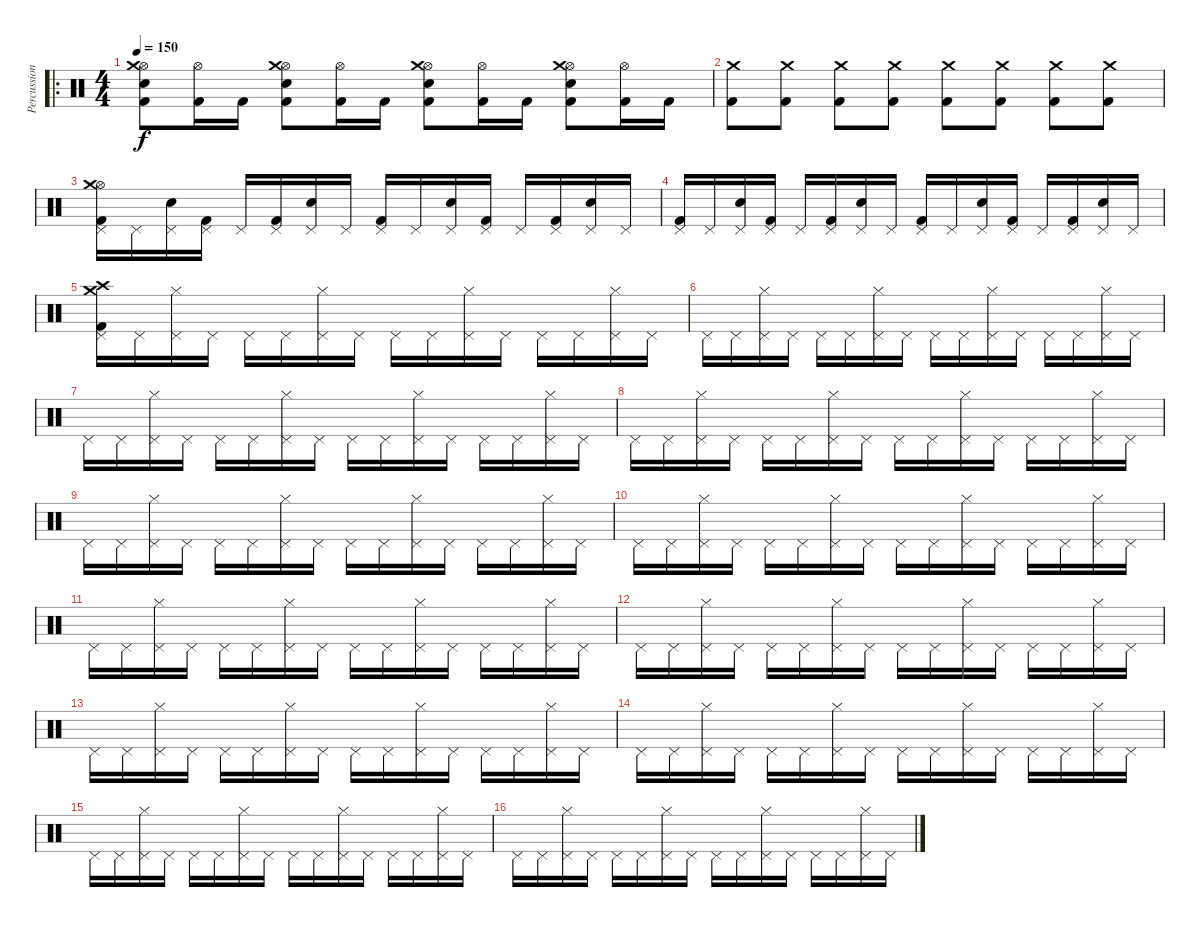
\track ("Percussion" "Percussion") {instrument percussion}
\staff {score}
\articulation defaults
\ro
\ts (4 4)
\tempo 150
\clef neutral
\ks c
("Hi-Hat (open)" "Kick (hit) 2" "Snare (hit) 2" "Crash medium (hit)").8{dy f} ("Hi-Hat (open)" "Kick (hit) 2").16 "Kick (hit) 2".16 ("Hi-Hat (open)" "Kick (hit) 2" "Snare (hit) 2" "Crash medium (hit)").8 ("Hi-Hat (open)" "Kick (hit) 2").16 "Kick (hit) 2".16 ("Hi-Hat (open)" "Kick (hit) 2" "Snare (hit) 2" "Crash medium (hit)").8 ("Hi-Hat (open)" "Kick (hit) 2").16 "Kick (hit) 2".16 ("Hi-Hat (open)" "Kick (hit) 2" "Snare (hit) 2" "Crash medium (hit)").8 ("Hi-Hat (open)" "Kick (hit) 2").16 "Kick (hit) 2".16 |
("Kick (hit) 2" "Crash medium (hit)").8 ("Kick (hit) 2" "Crash medium (hit)").8 ("Kick (hit) 2" "Crash medium (hit)").8 ("Kick (hit) 2" "Crash medium (hit)").8 ("Kick (hit) 2" "Crash medium (hit)").8 ("Kick (hit) 2" "Crash medium (hit)").8 ("Kick (hit) 2" "Crash medium (hit)").8 ("Kick (hit) 2" "Crash medium (hit)").8 |
("Pedal Hi-Hat (hit)" "Kick (hit) 2" "Hi-Hat (open)" "Crash medium (hit)").16 "Pedal Hi-Hat (hit)".16 ("Pedal Hi-Hat (hit)" "Snare (hit) 2").16 ("Pedal Hi-Hat (hit)" "Kick (hit) 2").16 "Pedal Hi-Hat (hit)".16 ("Pedal Hi-Hat (hit)" "Kick (hit) 2").16 ("Pedal Hi-Hat (hit)" "Snare (hit) 2").16 "Pedal Hi-Hat (hit)".16 ("Pedal Hi-Hat (hit)" "Kick (hit) 2").16 "Pedal Hi-Hat (hit)".16 ("Pedal Hi-Hat (hit)" "Snare (hit) 2").16 ("Pedal Hi-Hat (hit)" "Kick (hit) 2").16 "Pedal Hi-Hat (hit)".16 ("Pedal Hi-Hat (hit)" "Kick (hit) 2").16 ("Pedal Hi-Hat (hit)" "Snare (hit) 2").16 "Pedal Hi-Hat (hit)".16 |
("Pedal Hi-Hat (hit)" "Kick (hit) 2").16 "Pedal Hi-Hat (hit)".16 ("Pedal Hi-Hat (hit)" "Snare (hit) 2").16 ("Pedal Hi-Hat (hit)" "Kick (hit) 2").16 "Pedal Hi-Hat (hit)".16 ("Pedal Hi-Hat (hit)" "Kick (hit) 2").16 ("Pedal Hi-Hat (hit)" "Snare (hit) 2").16 "Pedal Hi-Hat (hit)".16 ("Pedal Hi-Hat (hit)" "Kick (hit) 2").16 "Pedal Hi-Hat (hit)".16 ("Pedal Hi-Hat (hit)" "Snare (hit) 2").16 ("Pedal Hi-Hat (hit)" "Kick (hit) 2").16 "Pedal Hi-Hat (hit)".16 ("Pedal Hi-Hat (hit)" "Kick (hit) 2").16 ("Pedal Hi-Hat (hit)" "Snare (hit) 2").16 "Pedal Hi-Hat (hit)".16 |
("Pedal Hi-Hat (hit)" "Kick (hit) 2" "Crash medium (hit)" "Crash high (hit)").16 "Pedal Hi-Hat (hit)".16 ("Pedal Hi-Hat (hit)" "Hi-Hat (closed)").16 "Pedal Hi-Hat (hit)".16 "Pedal Hi-Hat (hit)".16 "Pedal Hi-Hat (hit)".16 ("Pedal Hi-Hat (hit)" "Hi-Hat (closed)").16 "Pedal Hi-Hat (hit)".16 "Pedal Hi-Hat (hit)".16 "Pedal Hi-Hat (hit)".16 ("Pedal Hi-Hat (hit)" "Hi-Hat (closed)").16 "Pedal Hi-Hat (hit)".16 "Pedal Hi-Hat (hit)".16 "Pedal Hi-Hat (hit)".16 ("Pedal Hi-Hat (hit)" "Hi-Hat (closed)").16 "Pedal Hi-Hat (hit)".16 |
"Pedal Hi-Hat (hit)".16 "Pedal Hi-Hat (hit)".16 ("Pedal Hi-Hat (hit)" "Hi-Hat (closed)").16 "Pedal Hi-Hat (hit)".16 "Pedal Hi-Hat (hit)".16 "Pedal Hi-Hat (hit)".16 ("Pedal Hi-Hat (hit)" "Hi-Hat (closed)").16 "Pedal Hi-Hat (hit)".16 "Pedal Hi-Hat (hit)".16 "Pedal Hi-Hat (hit)".16 ("Pedal Hi-Hat (hit)" "Hi-Hat (closed)").16 "Pedal Hi-Hat (hit)".16 "Pedal Hi-Hat (hit)".16 "Pedal Hi-Hat (hit)".16 ("Pedal Hi-Hat (hit)" "Hi-Hat (closed)").16 "Pedal Hi-Hat (hit)".16 |
"Pedal Hi-Hat (hit)".16 "Pedal Hi-Hat (hit)".16 ("Pedal Hi-Hat (hit)" "Hi-Hat (closed)").16 "Pedal Hi-Hat (hit)".16 "Pedal Hi-Hat (hit)".16 "Pedal Hi-Hat (hit)".16 ("Pedal Hi-Hat (hit)" "Hi-Hat (closed)").16 "Pedal Hi-Hat (hit)".16 "Pedal Hi-Hat (hit)".16 "Pedal Hi-Hat (hit)".16 ("Pedal Hi-Hat (hit)" "Hi-Hat (closed)").16 "Pedal Hi-Hat (hit)".16 "Pedal Hi-Hat (hit)".16 "Pedal Hi-Hat (hit)".16 ("Pedal Hi-Hat (hit)" "Hi-Hat (closed)").16 "Pedal Hi-Hat (hit)".16 |
"Pedal Hi-Hat (hit)".16 "Pedal Hi-Hat (hit)".16 ("Pedal Hi-Hat (hit)" "Hi-Hat (closed)").16 "Pedal Hi-Hat (hit)".16 "Pedal Hi-Hat (hit)".16 "Pedal Hi-Hat (hit)".16 ("Pedal Hi-Hat (hit)" "Hi-Hat (closed)").16 "Pedal Hi-Hat (hit)".16 "Pedal Hi-Hat (hit)".16 "Pedal Hi-Hat (hit)".16 ("Pedal Hi-Hat (hit)" "Hi-Hat (closed)").16 "Pedal Hi-Hat (hit)".16 "Pedal Hi-Hat (hit)".16 "Pedal Hi-Hat (hit)".16 ("Pedal Hi-Hat (hit)" "Hi-Hat (closed)").16 "Pedal Hi-Hat (hit)".16 |
"Pedal Hi-Hat (hit)".16 "Pedal Hi-Hat (hit)".16 ("Pedal Hi-Hat (hit)" "Hi-Hat (closed)").16 "Pedal Hi-Hat (hit)".16 "Pedal Hi-Hat (hit)".16 "Pedal Hi-Hat (hit)".16 ("Pedal Hi-Hat (hit)" "Hi-Hat (closed)").16 "Pedal Hi-Hat (hit)".16 "Pedal Hi-Hat (hit)".16 "Pedal Hi-Hat (hit)".16 ("Pedal Hi-Hat (hit)" "Hi-Hat (closed)").16 "Pedal Hi-Hat (hit)".16 "Pedal Hi-Hat (hit)".16 "Pedal Hi-Hat (hit)".16 ("Pedal Hi-Hat (hit)" "Hi-Hat (closed)").16 "Pedal Hi-Hat (hit)".16 |
"Pedal Hi-Hat (hit)".16 "Pedal Hi-Hat (hit)".16 ("Pedal Hi-Hat (hit)" "Hi-Hat (closed)").16 "Pedal Hi-Hat (hit)".16 "Pedal Hi-Hat (hit)".16 "Pedal Hi-Hat (hit)".16 ("Pedal Hi-Hat (hit)" "Hi-Hat (closed)").16 "Pedal Hi-Hat (hit)".16 "Pedal Hi-Hat (hit)".16 "Pedal Hi-Hat (hit)".16 ("Pedal Hi-Hat (hit)" "Hi-Hat (closed)").16 "Pedal Hi-Hat (hit)".16 "Pedal Hi-Hat (hit)".16 "Pedal Hi-Hat (hit)".16 ("Pedal Hi-Hat (hit)" "Hi-Hat (closed)").16 "Pedal Hi-Hat (hit)".16 |
"Pedal Hi-Hat (hit)".16 "Pedal Hi-Hat (hit)".16 ("Pedal Hi-Hat (hit)" "Hi-Hat (closed)").16 "Pedal Hi-Hat (hit)".16 "Pedal Hi-Hat (hit)".16 "Pedal Hi-Hat (hit)".16 ("Pedal Hi-Hat (hit)" "Hi-Hat (closed)").16 "Pedal Hi-Hat (hit)".16 "Pedal Hi-Hat (hit)".16 "Pedal Hi-Hat (hit)".16 ("Pedal Hi-Hat (hit)" "Hi-Hat (closed)").16 "Pedal Hi-Hat (hit)".16 "Pedal Hi-Hat (hit)".16 "Pedal Hi-Hat (hit)".16 ("Pedal Hi-Hat (hit)" "Hi-Hat (closed)").16 "Pedal Hi-Hat (hit)".16 |
"Pedal Hi-Hat (hit)".16 "Pedal Hi-Hat (hit)".16 ("Pedal Hi-Hat (hit)" "Hi-Hat (closed)").16 "Pedal Hi-Hat (hit)".16 "Pedal Hi-Hat (hit)".16 "Pedal Hi-Hat (hit)".16 ("Pedal Hi-Hat (hit)" "Hi-Hat (closed)").16 "Pedal Hi-Hat (hit)".16 "Pedal Hi-Hat (hit)".16 "Pedal Hi-Hat (hit)".16 ("Pedal Hi-Hat (hit)" "Hi-Hat (closed)").16 "Pedal Hi-Hat (hit)".16 "Pedal Hi-Hat (hit)".16 "Pedal Hi-Hat (hit)".16 ("Pedal Hi-Hat (hit)" "Hi-Hat (closed)").16 "Pedal Hi-Hat (hit)".16 |
"Pedal Hi-Hat (hit)".16 "Pedal Hi-Hat (hit)".16 ("Pedal Hi-Hat (hit)" "Hi-Hat (closed)").16 "Pedal Hi-Hat (hit)".16 "Pedal Hi-Hat (hit)".16 "Pedal Hi-Hat (hit)".16 ("Pedal Hi-Hat (hit)" "Hi-Hat (closed)").16 "Pedal Hi-Hat (hit)".16 "Pedal Hi-Hat (hit)".16 "Pedal Hi-Hat (hit)".16 ("Pedal Hi-Hat (hit)" "Hi-Hat (closed)").16 "Pedal Hi-Hat (hit)".16 "Pedal Hi-Hat (hit)".16 "Pedal Hi-Hat (hit)".16 ("Pedal Hi-Hat (hit)" "Hi-Hat (closed)").16 "Pedal Hi-Hat (hit)".16 |
"Pedal Hi-Hat (hit)".16 "Pedal Hi-Hat (hit)".16 ("Pedal Hi-Hat (hit)" "Hi-Hat (closed)").16 "Pedal Hi-Hat (hit)".16 "Pedal Hi-Hat (hit)".16 "Pedal Hi-Hat (hit)".16 ("Pedal Hi-Hat (hit)" "Hi-Hat (closed)").16 "Pedal Hi-Hat (hit)".16 "Pedal Hi-Hat (hit)".16 "Pedal Hi-Hat (hit)".16 ("Pedal Hi-Hat (hit)" "Hi-Hat (closed)").16 "Pedal Hi-Hat (hit)".16 "Pedal Hi-Hat (hit)".16 "Pedal Hi-Hat (hit)".16 ("Pedal Hi-Hat (hit)" "Hi-Hat (closed)").16 "Pedal Hi-Hat (hit)".16 |
"Pedal Hi-Hat (hit)".16 "Pedal Hi-Hat (hit)".16 ("Pedal Hi-Hat (hit)" "Hi-Hat (closed)").16 "Pedal Hi-Hat (hit)".16 "Pedal Hi-Hat (hit)".16 "Pedal Hi-Hat (hit)".16 ("Pedal Hi-Hat (hit)" "Hi-Hat (closed)").16 "Pedal Hi-Hat (hit)".16 "Pedal Hi-Hat (hit)".16 "Pedal Hi-Hat (hit)".16 ("Pedal Hi-Hat (hit)" "Hi-Hat (closed)").16 "Pedal Hi-Hat (hit)".16 "Pedal Hi-Hat (hit)".16 "Pedal Hi-Hat (hit)".16 ("Pedal Hi-Hat (hit)" "Hi-Hat (closed)").16 "Pedal Hi-Hat (hit)".16 |
"Pedal Hi-Hat (hit)".16 "Pedal Hi-Hat (hit)".16 ("Pedal Hi-Hat (hit)" "Hi-Hat (closed)").16 "Pedal Hi-Hat (hit)".16 "Pedal Hi-Hat (hit)".16 "Pedal Hi-Hat (hit)".16 ("Pedal Hi-Hat (hit)" "Hi-Hat (closed)").16 "Pedal Hi-Hat (hit)".16 "Pedal Hi-Hat (hit)".16 "Pedal Hi-Hat (hit)".16 ("Pedal Hi-Hat (hit)" "Hi-Hat (closed)").16 "Pedal Hi-Hat (hit)".16 "Pedal Hi-Hat (hit)".16 "Pedal Hi-Hat (hit)".16 ("Pedal Hi-Hat (hit)" "Hi-Hat (closed)").16 "Pedal Hi-Hat (hit)".16
